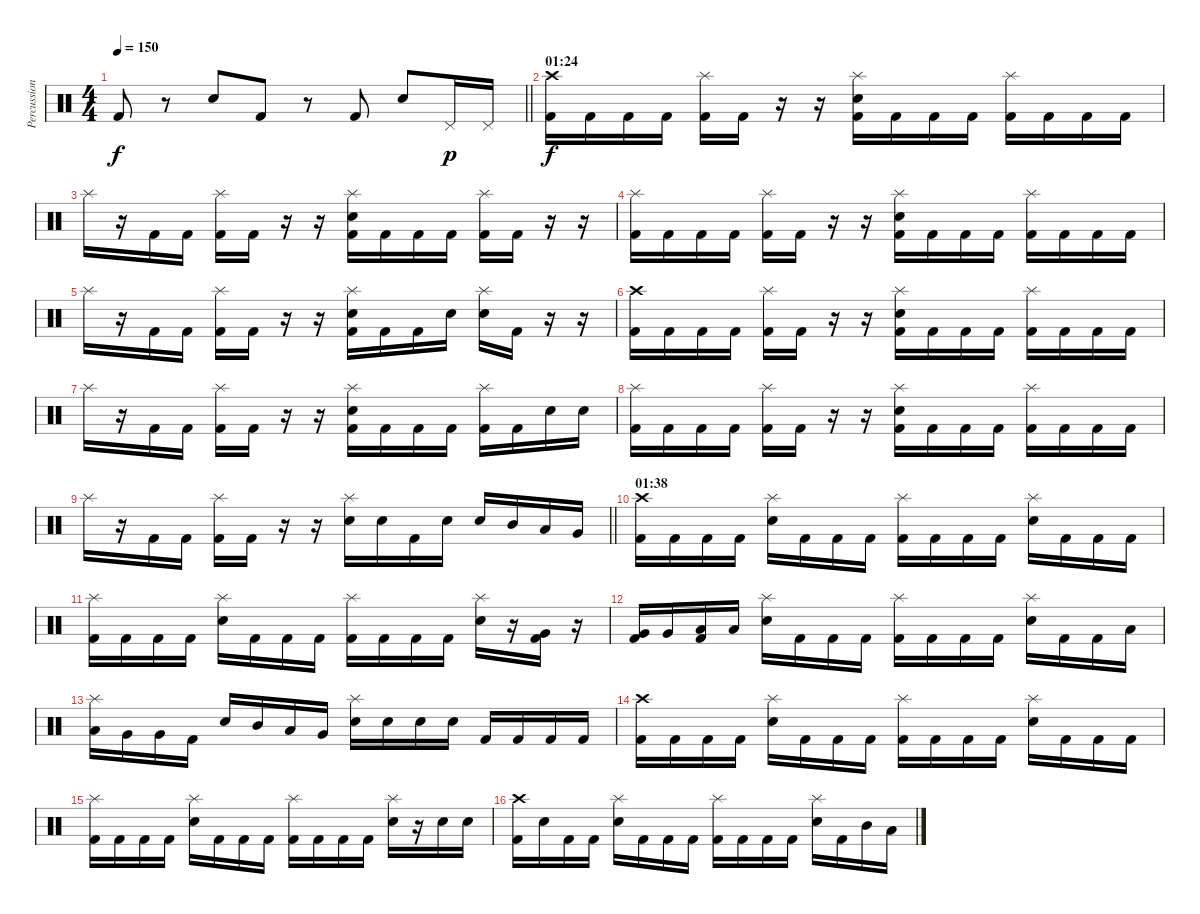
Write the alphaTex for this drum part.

\track ("Percussion" "Percussion") {instrument percussion}
\staff {score}
\articulation defaults
\ts (4 4)
\tempo 150
\clef neutral
\barLineRight lightlight
\ks c "Kick (hit) 2".8{dy f}
r.8 "Electric Snare (hit)".8 "Kick (hit) 2".8 r.8 "Kick (hit) 2".8 "Electric Snare (hit)".8 "Pedal Hi-Hat (hit)".16{dy p} "Pedal Hi-Hat (hit)".16 |
\section ("" "01:24")
("Crash high (hit)" "Kick (hit) 2").16{dy f} "Kick (hit) 2".16 "Kick (hit) 2".16 "Kick (hit) 2".16 ("Splash (hit)" "Kick (hit) 2").16 "Kick (hit) 2".16 r.16 r.16 ("Splash (hit)" "Electric Snare (hit)" "Kick (hit) 2").16 "Kick (hit) 2".16 "Kick (hit) 2".16 "Kick (hit) 2".16 ("Splash (hit)" "Kick (hit) 2").16 "Kick (hit) 2".16 "Kick (hit) 2".16 "Kick (hit) 2".16 |
"Splash (hit)".16 r.16 "Kick (hit) 2".16 "Kick (hit) 2".16 ("Splash (hit)" "Kick (hit) 2").16 "Kick (hit) 2".16 r.16 r.16 ("Splash (hit)" "Electric Snare (hit)" "Kick (hit) 2").16 "Kick (hit) 2".16 "Kick (hit) 2".16 "Kick (hit) 2".16 ("Splash (hit)" "Kick (hit) 2").16 "Kick (hit) 2".16 r.16 r.16 |
("Splash (hit)" "Kick (hit) 2").16 "Kick (hit) 2".16 "Kick (hit) 2".16 "Kick (hit) 2".16 ("Splash (hit)" "Kick (hit) 2").16 "Kick (hit) 2".16 r.16 r.16 ("Splash (hit)" "Electric Snare (hit)" "Kick (hit) 2").16 "Kick (hit) 2".16 "Kick (hit) 2".16 "Kick (hit) 2".16 ("Splash (hit)" "Kick (hit) 2").16 "Kick (hit) 2".16 "Kick (hit) 2".16 "Kick (hit) 2".16 |
"Splash (hit)".16 r.16 "Kick (hit) 2".16 "Kick (hit) 2".16 ("Splash (hit)" "Kick (hit) 2").16 "Kick (hit) 2".16 r.16 r.16 ("Splash (hit)" "Electric Snare (hit)" "Kick (hit) 2").16 "Kick (hit) 2".16 "Kick (hit) 2".16 "Electric Snare (hit)".16 ("Splash (hit)" "Electric Snare (hit)").16 "Kick (hit) 2".16 r.16 r.16 |
("Crash high (hit)" "Kick (hit) 2").16 "Kick (hit) 2".16 "Kick (hit) 2".16 "Kick (hit) 2".16 ("Splash (hit)" "Kick (hit) 2").16 "Kick (hit) 2".16 r.16 r.16 ("Splash (hit)" "Electric Snare (hit)" "Kick (hit) 2").16 "Kick (hit) 2".16 "Kick (hit) 2".16 "Kick (hit) 2".16 ("Splash (hit)" "Kick (hit) 2").16 "Kick (hit) 2".16 "Kick (hit) 2".16 "Kick (hit) 2".16 |
"Splash (hit)".16 r.16 "Kick (hit) 2".16 "Kick (hit) 2".16 ("Splash (hit)" "Kick (hit) 2").16 "Kick (hit) 2".16 r.16 r.16 ("Splash (hit)" "Electric Snare (hit)" "Kick (hit) 2").16 "Kick (hit) 2".16 "Kick (hit) 2".16 "Kick (hit) 2".16 ("Splash (hit)" "Kick (hit) 2").16 "Kick (hit) 2".16 "Electric Snare (hit)".16 "Electric Snare (hit)".16 |
("Splash (hit)" "Kick (hit) 2").16 "Kick (hit) 2".16 "Kick (hit) 2".16 "Kick (hit) 2".16 ("Splash (hit)" "Kick (hit) 2").16 "Kick (hit) 2".16 r.16 r.16 ("Splash (hit)" "Electric Snare (hit)" "Kick (hit) 2").16 "Kick (hit) 2".16 "Kick (hit) 2".16 "Kick (hit) 2".16 ("Splash (hit)" "Kick (hit) 2").16 "Kick (hit) 2".16 "Kick (hit) 2".16 "Kick (hit) 2".16 |
\barLineRight lightlight "Splash (hit)".16
r.16 "Kick (hit) 2".16 "Kick (hit) 2".16 ("Splash (hit)" "Kick (hit) 2").16 "Kick (hit) 2".16 r.16 r.16 ("Splash (hit)" "Electric Snare (hit)").16 "Electric Snare (hit)".16 "Kick (hit) 2".16 "Electric Snare (hit)".16 "Electric Snare (hit)".16 "Mid Tom (hit)".16 "Low Tom (hit)".16 "Very Low Tom (hit)".16 |
\section ("" "01:38")
("Crash high (hit)" "Kick (hit) 2").16 "Kick (hit) 2".16 "Kick (hit) 2".16 "Kick (hit) 2".16 ("Splash (hit)" "Electric Snare (hit)").16 "Kick (hit) 2".16 "Kick (hit) 2".16 "Kick (hit) 2".16 ("Splash (hit)" "Kick (hit) 2").16 "Kick (hit) 2".16 "Kick (hit) 2".16 "Kick (hit) 2".16 ("Splash (hit)" "Electric Snare (hit)").16 "Kick (hit) 2".16 "Kick (hit) 2".16 "Kick (hit) 2".16 |
("Splash (hit)" "Kick (hit) 2").16 "Kick (hit) 2".16 "Kick (hit) 2".16 "Kick (hit) 2".16 ("Splash (hit)" "Electric Snare (hit)").16 "Kick (hit) 2".16 "Kick (hit) 2".16 "Kick (hit) 2".16 ("Splash (hit)" "Kick (hit) 2").16 "Kick (hit) 2".16 "Kick (hit) 2".16 "Kick (hit) 2".16 ("Splash (hit)" "Electric Snare (hit)").16 r.16 ("Very Low Tom (hit)" "Kick (hit) 2").16 r.16 |
("Very Low Tom (hit)" "Kick (hit) 2").16 "Very Low Tom (hit)".16 ("Low Tom (hit)" "Kick (hit) 2").16 "Low Tom (hit)".16 ("Splash (hit)" "Electric Snare (hit)").16 "Kick (hit) 2".16 "Kick (hit) 2".16 "Kick (hit) 2".16 ("Splash (hit)" "Kick (hit) 2").16 "Kick (hit) 2".16 "Kick (hit) 2".16 "Kick (hit) 2".16 ("Splash (hit)" "Electric Snare (hit)").16 "Kick (hit) 2".16 "Kick (hit) 2".16 "Low Tom (hit)".16 |
("Splash (hit)" "Low Tom (hit)").16 "Very Low Tom (hit)".16 "Very Low Tom (hit)".16 "Kick (hit) 2".16 "Electric Snare (hit)".16 "Mid Tom (hit)".16 "Low Tom (hit)".16 "Very Low Tom (hit)".16 ("Splash (hit)" "Electric Snare (hit)").16 "Electric Snare (hit)".16 "Electric Snare (hit)".16 "Electric Snare (hit)".16 "Kick (hit) 2".16 "Kick (hit) 2".16 "Kick (hit) 2".16 "Kick (hit) 2".16 |
("Crash high (hit)" "Kick (hit) 2").16 "Kick (hit) 2".16 "Kick (hit) 2".16 "Kick (hit) 2".16 ("Splash (hit)" "Electric Snare (hit)").16 "Kick (hit) 2".16 "Kick (hit) 2".16 "Kick (hit) 2".16 ("Splash (hit)" "Kick (hit) 2").16 "Kick (hit) 2".16 "Kick (hit) 2".16 "Kick (hit) 2".16 ("Splash (hit)" "Electric Snare (hit)").16 "Kick (hit) 2".16 "Kick (hit) 2".16 "Kick (hit) 2".16 |
("Splash (hit)" "Kick (hit) 2").16 "Kick (hit) 2".16 "Kick (hit) 2".16 "Kick (hit) 2".16 ("Splash (hit)" "Electric Snare (hit)").16 "Kick (hit) 2".16 "Kick (hit) 2".16 "Kick (hit) 2".16 ("Splash (hit)" "Kick (hit) 2").16 "Kick (hit) 2".16 "Kick (hit) 2".16 "Kick (hit) 2".16 ("Splash (hit)" "Electric Snare (hit)").16 r.16 "Electric Snare (hit)".16 "Electric Snare (hit)".16 |
("Crash high (hit)" "Kick (hit) 2").16 "Electric Snare (hit)".16 "Kick (hit) 2".16 "Kick (hit) 2".16 ("Splash (hit)" "Electric Snare (hit)").16 "Kick (hit) 2".16 "Kick (hit) 2".16 "Kick (hit) 2".16 ("Splash (hit)" "Kick (hit) 2").16 "Kick (hit) 2".16 "Kick (hit) 2".16 "Kick (hit) 2".16 ("Splash (hit)" "Electric Snare (hit)").16 "Kick (hit) 2".16 "Mid Tom (hit)".16 "Low Tom (hit)".16
